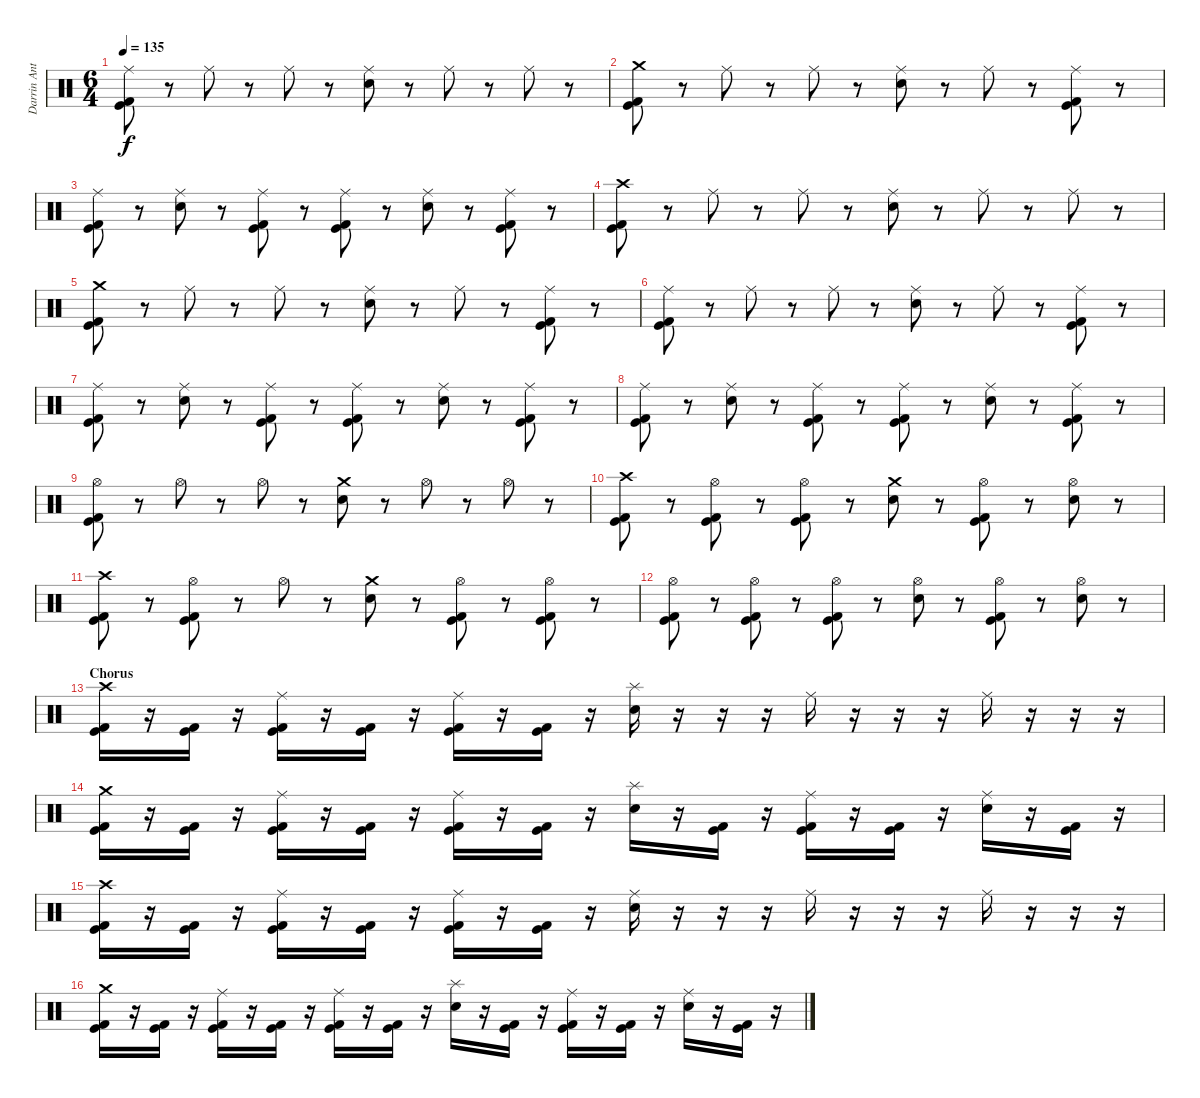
\track ("Darrin Anthony" "Darrin Ant") {instrument percussion}
\staff {score}
\articulation defaults
\ts (6 4)
\tempo 135
\clef neutral
\ks c
("Ride (middle)" "Kick (hit)" "Kick (hit) 2").8{dy f} r.8 "Ride (middle)".8 r.8 "Ride (middle)".8 r.8 ("Ride (middle)" "Electric Snare (hit)").8 r.8 "Ride (middle)".8 r.8 "Ride (middle)".8 r.8 |
("Crash medium (hit)" "Kick (hit)" "Kick (hit) 2").8 r.8 "Ride (middle)".8 r.8 "Ride (middle)".8 r.8 ("Ride (middle)" "Electric Snare (hit)").8 r.8 "Ride (middle)".8 r.8 ("Ride (middle)" "Kick (hit)" "Kick (hit) 2").8 r.8 |
("Ride (middle)" "Kick (hit)" "Kick (hit) 2").8 r.8 ("Ride (middle)" "Electric Snare (hit)").8 r.8 ("Ride (middle)" "Kick (hit)" "Kick (hit) 2").8 r.8 ("Ride (middle)" "Kick (hit)" "Kick (hit) 2").8 r.8 ("Ride (middle)" "Electric Snare (hit)").8 r.8 ("Ride (middle)" "Kick (hit)" "Kick (hit) 2").8 r.8 |
("Crash high (hit)" "Kick (hit)" "Kick (hit) 2").8 r.8 "Ride (middle)".8 r.8 "Ride (middle)".8 r.8 ("Ride (middle)" "Electric Snare (hit)").8 r.8 "Ride (middle)".8 r.8 "Ride (middle)".8 r.8 |
("Crash medium (hit)" "Kick (hit)" "Kick (hit) 2").8 r.8 "Ride (middle)".8 r.8 "Ride (middle)".8 r.8 ("Ride (middle)" "Electric Snare (hit)").8 r.8 "Ride (middle)".8 r.8 ("Ride (middle)" "Kick (hit)" "Kick (hit) 2").8 r.8 |
("Ride (middle)" "Kick (hit)" "Kick (hit) 2").8 r.8 "Ride (middle)".8 r.8 "Ride (middle)".8 r.8 ("Ride (middle)" "Electric Snare (hit)").8 r.8 "Ride (middle)".8 r.8 ("Ride (middle)" "Kick (hit)" "Kick (hit) 2").8 r.8 |
("Ride (middle)" "Kick (hit)" "Kick (hit) 2").8 r.8 ("Ride (middle)" "Electric Snare (hit)").8 r.8 ("Ride (middle)" "Kick (hit)" "Kick (hit) 2").8 r.8 ("Ride (middle)" "Kick (hit)" "Kick (hit) 2").8 r.8 ("Ride (middle)" "Electric Snare (hit)").8 r.8 ("Ride (middle)" "Kick (hit)" "Kick (hit) 2").8 r.8 |
("Ride (middle)" "Kick (hit)" "Kick (hit) 2").8 r.8 ("Ride (middle)" "Electric Snare (hit)").8 r.8 ("Ride (middle)" "Kick (hit)" "Kick (hit) 2").8 r.8 ("Ride (middle)" "Kick (hit)" "Kick (hit) 2").8 r.8 ("Ride (middle)" "Electric Snare (hit)").8 r.8 ("Ride (middle)" "Kick (hit)" "Kick (hit) 2").8 r.8 |
("Hi-Hat (open)" "Kick (hit)" "Kick (hit) 2").8 r.8 "Hi-Hat (open)".8 r.8 "Hi-Hat (open)".8 r.8 ("Crash medium (hit)" "Electric Snare (hit)").8 r.8 "Hi-Hat (open)".8 r.8 "Hi-Hat (open)".8 r.8 |
("Crash high (hit)" "Kick (hit)" "Kick (hit) 2").8 r.8 ("Hi-Hat (open)" "Kick (hit)" "Kick (hit) 2").8 r.8 ("Hi-Hat (open)" "Kick (hit)" "Kick (hit) 2").8 r.8 ("Crash medium (hit)" "Electric Snare (hit)").8 r.8 ("Hi-Hat (open)" "Kick (hit)" "Kick (hit) 2").8 r.8 ("Hi-Hat (open)" "Electric Snare (hit)").8 r.8 |
("Crash high (hit)" "Kick (hit)" "Kick (hit) 2").8 r.8 ("Hi-Hat (open)" "Kick (hit)" "Kick (hit) 2").8 r.8 "Hi-Hat (open)".8 r.8 ("Crash medium (hit)" "Electric Snare (hit)").8 r.8 ("Hi-Hat (open)" "Kick (hit)" "Kick (hit) 2").8 r.8 ("Hi-Hat (open)" "Kick (hit)" "Kick (hit) 2").8 r.8 |
("Hi-Hat (open)" "Kick (hit)" "Kick (hit) 2").8 r.8 ("Hi-Hat (open)" "Kick (hit)" "Kick (hit) 2").8 r.8 ("Hi-Hat (open)" "Kick (hit)" "Kick (hit) 2").8 r.8 ("Hi-Hat (open)" "Electric Snare (hit)").8 r.8 ("Hi-Hat (open)" "Kick (hit)" "Kick (hit) 2").8 r.8 ("Hi-Hat (open)" "Electric Snare (hit)").8 r.8 |
\section ("" "Chorus")
("Crash high (hit)" "Kick (hit)" "Kick (hit) 2").16 r.16 ("Kick (hit)" "Kick (hit) 2").16 r.16 ("Ride (middle)" "Kick (hit)" "Kick (hit) 2").16 r.16 ("Kick (hit)" "Kick (hit) 2").16 r.16 ("Ride (middle)" "Kick (hit)" "Kick (hit) 2").16 r.16 ("Kick (hit)" "Kick (hit) 2").16 r.16 ("Splash (hit)" "Electric Snare (hit)").16 r.16 r.16 r.16 "Ride (middle)".16 r.16 r.16 r.16 "Ride (middle)".16 r.16 r.16 r.16 |
("Crash medium (hit)" "Kick (hit)" "Kick (hit) 2").16 r.16 ("Kick (hit)" "Kick (hit) 2").16 r.16 ("Ride (middle)" "Kick (hit)" "Kick (hit) 2").16 r.16 ("Kick (hit)" "Kick (hit) 2").16 r.16 ("Ride (middle)" "Kick (hit)" "Kick (hit) 2").16 r.16 ("Kick (hit)" "Kick (hit) 2").16 r.16 ("Splash (hit)" "Electric Snare (hit)").16 r.16 ("Kick (hit)" "Kick (hit) 2").16 r.16 ("Ride (middle)" "Kick (hit)" "Kick (hit) 2").16 r.16 ("Kick (hit)" "Kick (hit) 2").16 r.16 ("Ride (middle)" "Electric Snare (hit)").16 r.16 ("Kick (hit)" "Kick (hit) 2").16 r.16 |
("Crash high (hit)" "Kick (hit)" "Kick (hit) 2").16 r.16 ("Kick (hit)" "Kick (hit) 2").16 r.16 ("Ride (middle)" "Kick (hit)" "Kick (hit) 2").16 r.16 ("Kick (hit)" "Kick (hit) 2").16 r.16 ("Ride (middle)" "Kick (hit)" "Kick (hit) 2").16 r.16 ("Kick (hit)" "Kick (hit) 2").16 r.16 ("Ride (middle)" "Electric Snare (hit)").16 r.16 r.16 r.16 "Ride (middle)".16 r.16 r.16 r.16 "Ride (middle)".16 r.16 r.16 r.16 |
("Crash medium (hit)" "Kick (hit)" "Kick (hit) 2").16 r.16 ("Kick (hit)" "Kick (hit) 2").16 r.16 ("Ride (middle)" "Kick (hit)" "Kick (hit) 2").16 r.16 ("Kick (hit)" "Kick (hit) 2").16 r.16 ("Ride (middle)" "Kick (hit)" "Kick (hit) 2").16 r.16 ("Kick (hit)" "Kick (hit) 2").16 r.16 ("Splash (hit)" "Electric Snare (hit)").16 r.16 ("Kick (hit)" "Kick (hit) 2").16 r.16 ("Ride (middle)" "Kick (hit)" "Kick (hit) 2").16 r.16 ("Kick (hit)" "Kick (hit) 2").16 r.16 ("Ride (middle)" "Electric Snare (hit)").16 r.16 ("Kick (hit)" "Kick (hit) 2").16 r.16
